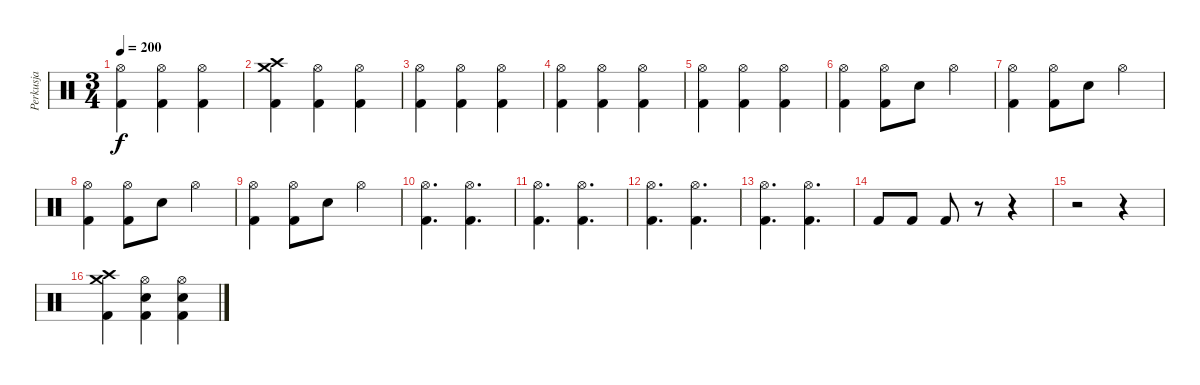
\track ("Perkusja" "Perkusja") {instrument percussion}
\staff {score}
\articulation defaults
\ts (3 4)
\tempo 200
\clef neutral
\ks c
("Hi-Hat (open)" "Kick (hit) 2").4{dy f} ("Hi-Hat (open)" "Kick (hit) 2").4 ("Hi-Hat (open)" "Kick (hit) 2").4 |
("Crash high (hit)" "Crash medium (hit)" "Kick (hit) 2").4 ("Hi-Hat (open)" "Kick (hit) 2").4 ("Hi-Hat (open)" "Kick (hit) 2").4 |
("Hi-Hat (open)" "Kick (hit) 2").4 ("Hi-Hat (open)" "Kick (hit) 2").4 ("Hi-Hat (open)" "Kick (hit) 2").4 |
("Hi-Hat (open)" "Kick (hit) 2").4 ("Hi-Hat (open)" "Kick (hit) 2").4 ("Hi-Hat (open)" "Kick (hit) 2").4 |
("Hi-Hat (open)" "Kick (hit) 2").4 ("Hi-Hat (open)" "Kick (hit) 2").4 ("Hi-Hat (open)" "Kick (hit) 2").4 |
("Hi-Hat (open)" "Kick (hit) 2").4 ("Hi-Hat (open)" "Kick (hit) 2").8 "Electric Snare (hit)".8 "Hi-Hat (open)".4 |
("Hi-Hat (open)" "Kick (hit) 2").4 ("Hi-Hat (open)" "Kick (hit) 2").8 "Electric Snare (hit)".8 "Hi-Hat (open)".4 |
("Hi-Hat (open)" "Kick (hit) 2").4 ("Hi-Hat (open)" "Kick (hit) 2").8 "Electric Snare (hit)".8 "Hi-Hat (open)".4 |
("Hi-Hat (open)" "Kick (hit) 2").4 ("Hi-Hat (open)" "Kick (hit) 2").8 "Electric Snare (hit)".8 "Hi-Hat (open)".4 |
("Hi-Hat (open)" "Kick (hit) 2").4{d} ("Hi-Hat (open)" "Kick (hit) 2").4{d} |
("Hi-Hat (open)" "Kick (hit) 2").4{d} ("Hi-Hat (open)" "Kick (hit) 2").4{d} |
("Hi-Hat (open)" "Kick (hit) 2").4{d} ("Hi-Hat (open)" "Kick (hit) 2").4{d} |
("Hi-Hat (open)" "Kick (hit) 2").4{d} ("Hi-Hat (open)" "Kick (hit) 2").4{d} |
"Kick (hit) 2".8 "Kick (hit) 2".8 "Kick (hit) 2".8 r.8 r.4 |
r.2 r.4 |
("Crash high (hit)" "Crash medium (hit)" "Kick (hit) 2").4 ("Hi-Hat (open)" "Electric Snare (hit)" "Kick (hit) 2").4 ("Hi-Hat (open)" "Electric Snare (hit)" "Kick (hit) 2").4
